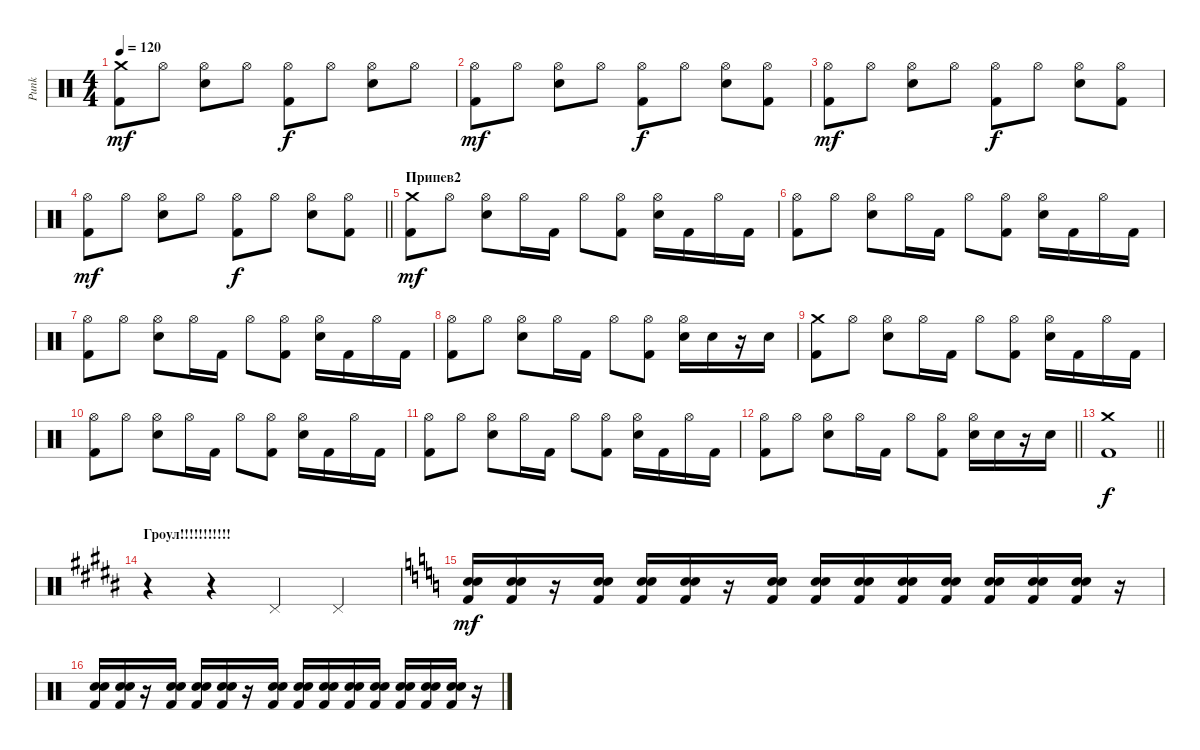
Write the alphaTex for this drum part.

\track ("Punk" "Punk") {instrument percussion}
\staff {score}
\articulation defaults
\ts (4 4)
\tempo 120
\clef neutral
\ks c
("Crash medium (hit)" "Kick (hit) 2").8{dy mf} "Hi-Hat (open)".8 ("Hi-Hat (open)" "Electric Snare (hit)").8 "Hi-Hat (open)".8 ("Hi-Hat (open)" "Kick (hit) 2").8{dy f} "Hi-Hat (open)".8 ("Hi-Hat (open)" "Electric Snare (hit)").8 "Hi-Hat (open)".8 |
("Hi-Hat (open)" "Kick (hit) 2").8{dy mf} "Hi-Hat (open)".8 ("Hi-Hat (open)" "Electric Snare (hit)").8 "Hi-Hat (open)".8 ("Hi-Hat (open)" "Kick (hit) 2").8{dy f} "Hi-Hat (open)".8 ("Hi-Hat (open)" "Electric Snare (hit)").8 ("Hi-Hat (open)" "Kick (hit) 2").8 |
("Hi-Hat (open)" "Kick (hit) 2").8{dy mf} "Hi-Hat (open)".8 ("Hi-Hat (open)" "Electric Snare (hit)").8 "Hi-Hat (open)".8 ("Hi-Hat (open)" "Kick (hit) 2").8{dy f} "Hi-Hat (open)".8 ("Hi-Hat (open)" "Electric Snare (hit)").8 ("Hi-Hat (open)" "Kick (hit) 2").8 |
\barLineRight lightlight
("Hi-Hat (open)" "Kick (hit) 2").8{dy mf} "Hi-Hat (open)".8 ("Hi-Hat (open)" "Electric Snare (hit)").8 "Hi-Hat (open)".8 ("Hi-Hat (open)" "Kick (hit) 2").8{dy f} "Hi-Hat (open)".8 ("Hi-Hat (open)" "Electric Snare (hit)").8 ("Hi-Hat (open)" "Kick (hit) 2").8 |
\section ("" "Припев2")
("Crash medium (hit)" "Kick (hit) 2").8{dy mf} "Hi-Hat (open)".8 ("Hi-Hat (open)" "Electric Snare (hit)").8 "Hi-Hat (open)".16 "Kick (hit) 2".16 "Hi-Hat (open)".8 ("Hi-Hat (open)" "Kick (hit) 2").8 ("Hi-Hat (open)" "Electric Snare (hit)").16 "Kick (hit) 2".16 "Hi-Hat (open)".16 "Kick (hit) 2".16 |
("Hi-Hat (open)" "Kick (hit) 2").8 "Hi-Hat (open)".8 ("Hi-Hat (open)" "Electric Snare (hit)").8 "Hi-Hat (open)".16 "Kick (hit) 2".16 "Hi-Hat (open)".8 ("Hi-Hat (open)" "Kick (hit) 2").8 ("Hi-Hat (open)" "Electric Snare (hit)").16 "Kick (hit) 2".16 "Hi-Hat (open)".16 "Kick (hit) 2".16 |
("Hi-Hat (open)" "Kick (hit) 2").8 "Hi-Hat (open)".8 ("Hi-Hat (open)" "Electric Snare (hit)").8 "Hi-Hat (open)".16 "Kick (hit) 2".16 "Hi-Hat (open)".8 ("Hi-Hat (open)" "Kick (hit) 2").8 ("Hi-Hat (open)" "Electric Snare (hit)").16 "Kick (hit) 2".16 "Hi-Hat (open)".16 "Kick (hit) 2".16 |
("Hi-Hat (open)" "Kick (hit) 2").8 "Hi-Hat (open)".8 ("Hi-Hat (open)" "Electric Snare (hit)").8 "Hi-Hat (open)".16 "Kick (hit) 2".16 "Hi-Hat (open)".8 ("Hi-Hat (open)" "Kick (hit) 2").8 ("Hi-Hat (open)" "Electric Snare (hit)").16 "Electric Snare (hit)".16 r.16 "Electric Snare (hit)".16 |
("Crash medium (hit)" "Kick (hit) 2").8 "Hi-Hat (open)".8 ("Hi-Hat (open)" "Electric Snare (hit)").8 "Hi-Hat (open)".16 "Kick (hit) 2".16 "Hi-Hat (open)".8 ("Hi-Hat (open)" "Kick (hit) 2").8 ("Hi-Hat (open)" "Electric Snare (hit)").16 "Kick (hit) 2".16 "Hi-Hat (open)".16 "Kick (hit) 2".16 |
("Hi-Hat (open)" "Kick (hit) 2").8 "Hi-Hat (open)".8 ("Hi-Hat (open)" "Electric Snare (hit)").8 "Hi-Hat (open)".16 "Kick (hit) 2".16 "Hi-Hat (open)".8 ("Hi-Hat (open)" "Kick (hit) 2").8 ("Hi-Hat (open)" "Electric Snare (hit)").16 "Kick (hit) 2".16 "Hi-Hat (open)".16 "Kick (hit) 2".16 |
("Hi-Hat (open)" "Kick (hit) 2").8 "Hi-Hat (open)".8 ("Hi-Hat (open)" "Electric Snare (hit)").8 "Hi-Hat (open)".16 "Kick (hit) 2".16 "Hi-Hat (open)".8 ("Hi-Hat (open)" "Kick (hit) 2").8 ("Hi-Hat (open)" "Electric Snare (hit)").16 "Kick (hit) 2".16 "Hi-Hat (open)".16 "Kick (hit) 2".16 |
\barLineRight lightlight
("Hi-Hat (open)" "Kick (hit) 2").8 "Hi-Hat (open)".8 ("Hi-Hat (open)" "Electric Snare (hit)").8 "Hi-Hat (open)".16 "Kick (hit) 2".16 "Hi-Hat (open)".8 ("Hi-Hat (open)" "Kick (hit) 2").8 ("Hi-Hat (open)" "Electric Snare (hit)").16 "Electric Snare (hit)".16 r.16 "Electric Snare (hit)".16 |
\barLineRight lightlight
("Crash medium (hit)" "Kick (hit) 2").1{dy f} |
\section ("" "Гроул!!!!!!!!!!!")
\ks b
r.4 r.4 "Pedal Hi-Hat (hit)".4 "Pedal Hi-Hat (hit)".4 |
\ks c
("Kick (hit) 2" "Electric Snare (hit)" "Snare (hit) 2").16{dy mf} ("Kick (hit) 2" "Electric Snare (hit)" "Snare (hit) 2").16 r.16 ("Kick (hit) 2" "Electric Snare (hit)" "Snare (hit) 2").16 ("Kick (hit) 2" "Electric Snare (hit)" "Snare (hit) 2").16 ("Kick (hit) 2" "Electric Snare (hit)" "Snare (hit) 2").16 r.16 ("Kick (hit) 2" "Electric Snare (hit)" "Snare (hit) 2").16 ("Kick (hit) 2" "Electric Snare (hit)" "Snare (hit) 2").16 ("Kick (hit) 2" "Electric Snare (hit)" "Snare (hit) 2").16 ("Kick (hit) 2" "Electric Snare (hit)" "Snare (hit) 2").16 ("Kick (hit) 2" "Electric Snare (hit)" "Snare (hit) 2").16 ("Kick (hit) 2" "Electric Snare (hit)" "Snare (hit) 2").16 ("Kick (hit) 2" "Electric Snare (hit)" "Snare (hit) 2").16 ("Kick (hit) 2" "Electric Snare (hit)" "Snare (hit) 2").16 r.16 |
("Kick (hit) 2" "Electric Snare (hit)" "Snare (hit) 2").16 ("Kick (hit) 2" "Electric Snare (hit)" "Snare (hit) 2").16 r.16 ("Kick (hit) 2" "Electric Snare (hit)" "Snare (hit) 2").16 ("Kick (hit) 2" "Electric Snare (hit)" "Snare (hit) 2").16 ("Kick (hit) 2" "Electric Snare (hit)" "Snare (hit) 2").16 r.16 ("Kick (hit) 2" "Electric Snare (hit)" "Snare (hit) 2").16 ("Kick (hit) 2" "Electric Snare (hit)" "Snare (hit) 2").16 ("Kick (hit) 2" "Electric Snare (hit)" "Snare (hit) 2").16 ("Kick (hit) 2" "Electric Snare (hit)" "Snare (hit) 2").16 ("Kick (hit) 2" "Electric Snare (hit)" "Snare (hit) 2").16 ("Kick (hit) 2" "Electric Snare (hit)" "Snare (hit) 2").16 ("Kick (hit) 2" "Electric Snare (hit)" "Snare (hit) 2").16 ("Kick (hit) 2" "Electric Snare (hit)" "Snare (hit) 2").16 r.16
